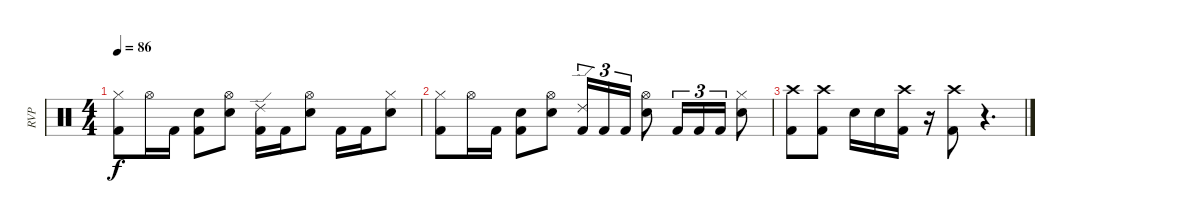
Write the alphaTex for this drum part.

\track ("RVP" "RVP") {instrument percussion}
\staff {score}
\articulation defaults
\ts (4 4)
\tempo 86
\clef neutral
\ks c
("Hi-Hat (closed)" "Kick (hit) 2").8{dy f} "Hi-Hat (open)".16 "Kick (hit) 2".16 ("Electric Snare (hit)" "Kick (hit) 2").8 ("Hi-Hat (open)" "Electric Snare (hit)").8 ("Ride (edge) 2" "Kick (hit) 2").16 "Kick (hit) 2".16 ("Hi-Hat (open)" "Electric Snare (hit)").8 "Kick (hit) 2".16 "Kick (hit) 2".16 ("Hi-Hat (closed)" "Electric Snare (hit)").8 |
("Hi-Hat (closed)" "Kick (hit) 2").8 "Hi-Hat (open)".16 "Kick (hit) 2".16 ("Electric Snare (hit)" "Kick (hit) 2").8 ("Hi-Hat (open)" "Electric Snare (hit)").8 ("Ride (edge) 2" "Kick (hit) 2").16{tu (3 2)} "Kick (hit) 2".16{tu (3 2)} "Kick (hit) 2".16{tu (3 2)} ("Hi-Hat (open)" "Electric Snare (hit)").8 "Kick (hit) 2".16{tu (3 2)} "Kick (hit) 2".16{tu (3 2)} "Kick (hit) 2".16{tu (3 2)} ("Hi-Hat (closed)" "Electric Snare (hit)").8 |
("Crash high (hit)" "Kick (hit) 2").8 ("Crash high (hit)" "Kick (hit) 2").8 "Electric Snare (hit)".16 "Electric Snare (hit)".16 ("Crash high (hit)" "Kick (hit) 2").16 r.16 ("Crash high (hit)" "Kick (hit) 2").8 r.4{d}
